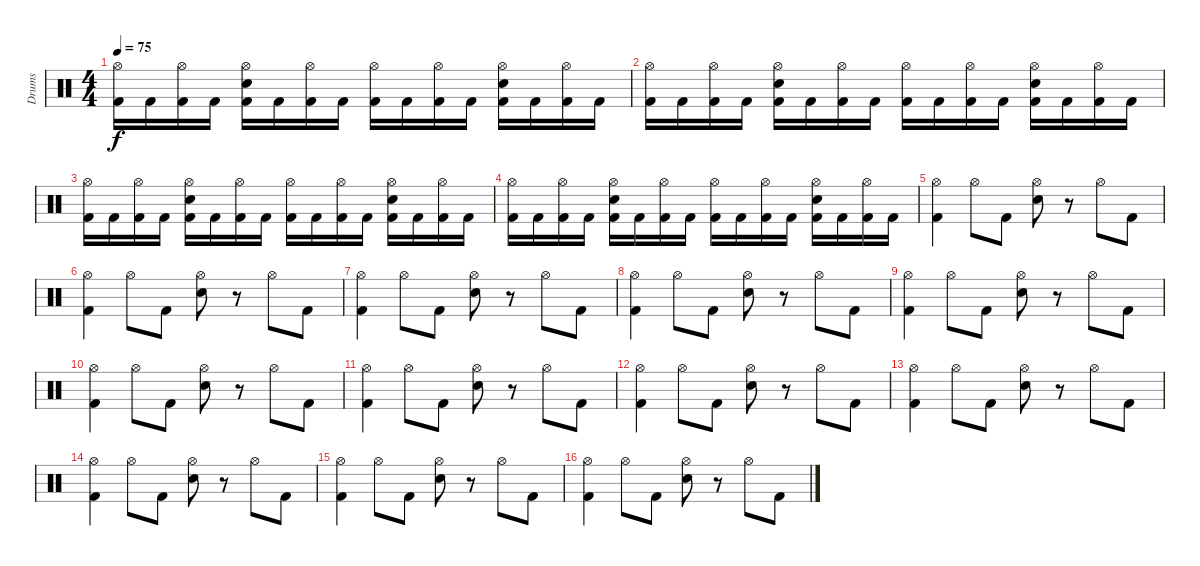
\track ("Drums" "Drums") {instrument percussion}
\staff {score}
\articulation defaults
\ts (4 4)
\tempo 75
\clef neutral
\ks c
("Hi-Hat (open)" "Kick (hit) 2").16{dy f} "Kick (hit) 2".16 ("Hi-Hat (open)" "Kick (hit) 2").16 "Kick (hit) 2".16 ("Hi-Hat (open)" "Snare (hit) 2" "Kick (hit) 2").16 "Kick (hit) 2".16 ("Hi-Hat (open)" "Kick (hit) 2").16 "Kick (hit) 2".16 ("Hi-Hat (open)" "Kick (hit) 2").16 "Kick (hit) 2".16 ("Hi-Hat (open)" "Kick (hit) 2").16 "Kick (hit) 2".16 ("Hi-Hat (open)" "Snare (hit) 2" "Kick (hit) 2").16 "Kick (hit) 2".16 ("Hi-Hat (open)" "Kick (hit) 2").16 "Kick (hit) 2".16 |
("Hi-Hat (open)" "Kick (hit) 2").16 "Kick (hit) 2".16 ("Hi-Hat (open)" "Kick (hit) 2").16 "Kick (hit) 2".16 ("Hi-Hat (open)" "Snare (hit) 2" "Kick (hit) 2").16 "Kick (hit) 2".16 ("Hi-Hat (open)" "Kick (hit) 2").16 "Kick (hit) 2".16 ("Hi-Hat (open)" "Kick (hit) 2").16 "Kick (hit) 2".16 ("Hi-Hat (open)" "Kick (hit) 2").16 "Kick (hit) 2".16 ("Hi-Hat (open)" "Snare (hit) 2" "Kick (hit) 2").16 "Kick (hit) 2".16 ("Hi-Hat (open)" "Kick (hit) 2").16 "Kick (hit) 2".16 |
("Hi-Hat (open)" "Kick (hit) 2").16 "Kick (hit) 2".16 ("Hi-Hat (open)" "Kick (hit) 2").16 "Kick (hit) 2".16 ("Hi-Hat (open)" "Snare (hit) 2" "Kick (hit) 2").16 "Kick (hit) 2".16 ("Hi-Hat (open)" "Kick (hit) 2").16 "Kick (hit) 2".16 ("Hi-Hat (open)" "Kick (hit) 2").16 "Kick (hit) 2".16 ("Hi-Hat (open)" "Kick (hit) 2").16 "Kick (hit) 2".16 ("Hi-Hat (open)" "Snare (hit) 2" "Kick (hit) 2").16 "Kick (hit) 2".16 ("Hi-Hat (open)" "Kick (hit) 2").16 "Kick (hit) 2".16 |
("Hi-Hat (open)" "Kick (hit) 2").16 "Kick (hit) 2".16 ("Hi-Hat (open)" "Kick (hit) 2").16 "Kick (hit) 2".16 ("Hi-Hat (open)" "Snare (hit) 2" "Kick (hit) 2").16 "Kick (hit) 2".16 ("Hi-Hat (open)" "Kick (hit) 2").16 "Kick (hit) 2".16 ("Hi-Hat (open)" "Kick (hit) 2").16 "Kick (hit) 2".16 ("Hi-Hat (open)" "Kick (hit) 2").16 "Kick (hit) 2".16 ("Hi-Hat (open)" "Snare (hit) 2" "Kick (hit) 2").16 "Kick (hit) 2".16 ("Hi-Hat (open)" "Kick (hit) 2").16 "Kick (hit) 2".16 |
("Hi-Hat (open)" "Kick (hit) 2").4 "Hi-Hat (open)".8 "Kick (hit) 2".8 ("Hi-Hat (open)" "Snare (hit) 2").8 r.8 "Hi-Hat (open)".8 "Kick (hit) 2".8 |
("Hi-Hat (open)" "Kick (hit) 2").4 "Hi-Hat (open)".8 "Kick (hit) 2".8 ("Hi-Hat (open)" "Snare (hit) 2").8 r.8 "Hi-Hat (open)".8 "Kick (hit) 2".8 |
("Hi-Hat (open)" "Kick (hit) 2").4 "Hi-Hat (open)".8 "Kick (hit) 2".8 ("Hi-Hat (open)" "Snare (hit) 2").8 r.8 "Hi-Hat (open)".8 "Kick (hit) 2".8 |
("Hi-Hat (open)" "Kick (hit) 2").4 "Hi-Hat (open)".8 "Kick (hit) 2".8 ("Hi-Hat (open)" "Snare (hit) 2").8 r.8 "Hi-Hat (open)".8 "Kick (hit) 2".8 |
("Hi-Hat (open)" "Kick (hit) 2").4 "Hi-Hat (open)".8 "Kick (hit) 2".8 ("Hi-Hat (open)" "Snare (hit) 2").8 r.8 "Hi-Hat (open)".8 "Kick (hit) 2".8 |
("Hi-Hat (open)" "Kick (hit) 2").4 "Hi-Hat (open)".8 "Kick (hit) 2".8 ("Hi-Hat (open)" "Snare (hit) 2").8 r.8 "Hi-Hat (open)".8 "Kick (hit) 2".8 |
("Hi-Hat (open)" "Kick (hit) 2").4 "Hi-Hat (open)".8 "Kick (hit) 2".8 ("Hi-Hat (open)" "Snare (hit) 2").8 r.8 "Hi-Hat (open)".8 "Kick (hit) 2".8 |
("Hi-Hat (open)" "Kick (hit) 2").4 "Hi-Hat (open)".8 "Kick (hit) 2".8 ("Hi-Hat (open)" "Snare (hit) 2").8 r.8 "Hi-Hat (open)".8 "Kick (hit) 2".8 |
("Hi-Hat (open)" "Kick (hit) 2").4 "Hi-Hat (open)".8 "Kick (hit) 2".8 ("Hi-Hat (open)" "Snare (hit) 2").8 r.8 "Hi-Hat (open)".8 "Kick (hit) 2".8 |
("Hi-Hat (open)" "Kick (hit) 2").4 "Hi-Hat (open)".8 "Kick (hit) 2".8 ("Hi-Hat (open)" "Snare (hit) 2").8 r.8 "Hi-Hat (open)".8 "Kick (hit) 2".8 |
("Hi-Hat (open)" "Kick (hit) 2").4 "Hi-Hat (open)".8 "Kick (hit) 2".8 ("Hi-Hat (open)" "Snare (hit) 2").8 r.8 "Hi-Hat (open)".8 "Kick (hit) 2".8 |
("Hi-Hat (open)" "Kick (hit) 2").4 "Hi-Hat (open)".8 "Kick (hit) 2".8 ("Hi-Hat (open)" "Snare (hit) 2").8 r.8 "Hi-Hat (open)".8 "Kick (hit) 2".8
